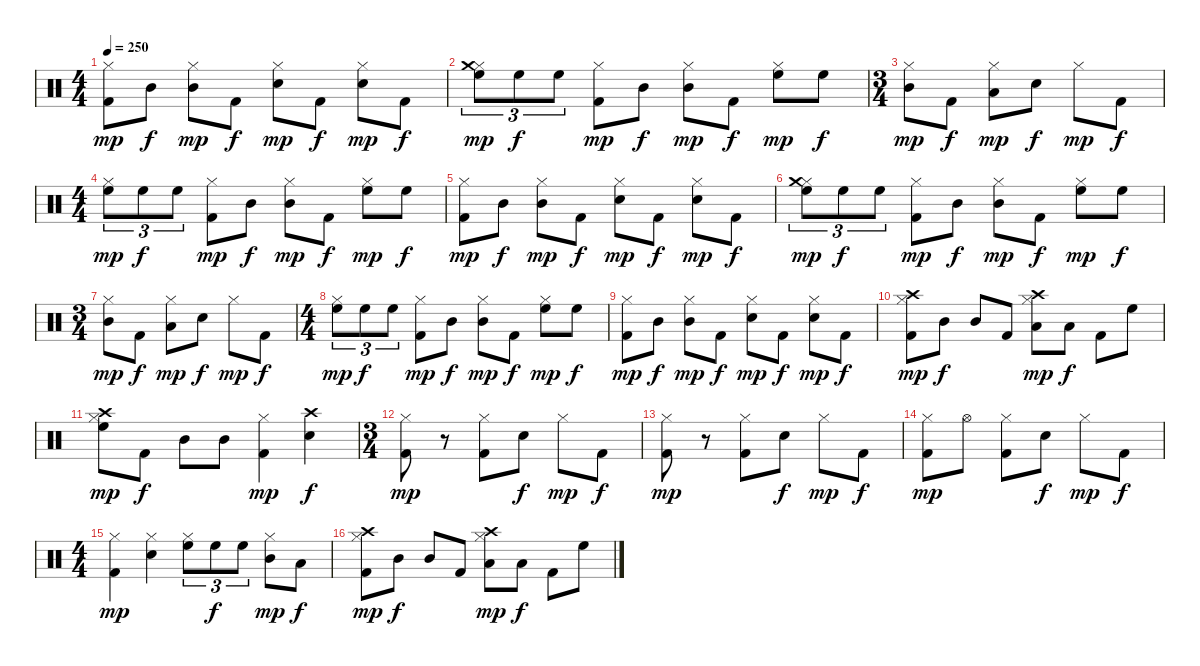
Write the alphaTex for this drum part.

\track "" {instrument percussion}
\staff {score}
\articulation defaults
\ts (4 4)
\tempo 250
\clef neutral
\ks c
("Hi-Hat (closed)" "Kick (hit) 2").8{dy mp balance 8} "Mid Tom (hit)".8{dy f} ("Hi-Hat (closed)" "Mid Tom (hit)").8{dy mp} "Kick (hit) 2".8{dy f} ("Hi-Hat (closed)" "Electric Snare (hit)").8{dy mp} "Kick (hit) 2".8{dy f} ("Hi-Hat (closed)" "Electric Snare (hit)").8{dy mp} "Kick (hit) 2".8{dy f} |
("Hi-Hat (closed)" "High Floor Tom (hit)" "Crash medium (hit)").8{tu (3 2) dy mp balance 14} "High Floor Tom (hit)".8{tu (3 2) dy f} "High Floor Tom (hit)".8{tu (3 2)} ("Hi-Hat (closed)" "Kick (hit) 2").8{dy mp balance 8} "Mid Tom (hit)".8{dy f} ("Hi-Hat (closed)" "Mid Tom (hit)").8{dy mp} "Kick (hit) 2".8{dy f} ("Hi-Hat (closed)" "High Floor Tom (hit)").8{dy mp balance 14} "High Floor Tom (hit)".8{dy f} |
\ts (3 4)
("Hi-Hat (closed)" "Mid Tom (hit)").8{dy mp balance 8} "Kick (hit) 2".8{dy f} ("Hi-Hat (closed)" "Low Tom (hit)").8{dy mp balance 2} "Electric Snare (hit)".8{dy f balance 8} "Hi-Hat (closed)".8{dy mp} "Kick (hit) 2".8{dy f} |
\ts (4 4)
("Hi-Hat (closed)" "High Floor Tom (hit)").8{tu (3 2) dy mp balance 14} "High Floor Tom (hit)".8{tu (3 2) dy f} "High Floor Tom (hit)".8{tu (3 2)} ("Hi-Hat (closed)" "Kick (hit) 2").8{dy mp balance 8} "Mid Tom (hit)".8{dy f} ("Hi-Hat (closed)" "Mid Tom (hit)").8{dy mp} "Kick (hit) 2".8{dy f} ("Hi-Hat (closed)" "High Floor Tom (hit)").8{dy mp balance 14} "High Floor Tom (hit)".8{dy f} |
("Hi-Hat (closed)" "Kick (hit) 2").8{dy mp balance 8} "Mid Tom (hit)".8{dy f} ("Hi-Hat (closed)" "Mid Tom (hit)").8{dy mp} "Kick (hit) 2".8{dy f} ("Hi-Hat (closed)" "Electric Snare (hit)").8{dy mp} "Kick (hit) 2".8{dy f} ("Hi-Hat (closed)" "Electric Snare (hit)").8{dy mp} "Kick (hit) 2".8{dy f} |
("Hi-Hat (closed)" "High Floor Tom (hit)" "Crash medium (hit)").8{tu (3 2) dy mp balance 14} "High Floor Tom (hit)".8{tu (3 2) dy f} "High Floor Tom (hit)".8{tu (3 2)} ("Hi-Hat (closed)" "Kick (hit) 2").8{dy mp balance 8} "Mid Tom (hit)".8{dy f} ("Hi-Hat (closed)" "Mid Tom (hit)").8{dy mp} "Kick (hit) 2".8{dy f} ("Hi-Hat (closed)" "High Floor Tom (hit)").8{dy mp balance 14} "High Floor Tom (hit)".8{dy f} |
\ts (3 4)
("Hi-Hat (closed)" "Mid Tom (hit)").8{dy mp balance 8} "Kick (hit) 2".8{dy f} ("Hi-Hat (closed)" "Low Tom (hit)").8{dy mp balance 2} "Electric Snare (hit)".8{dy f balance 8} "Hi-Hat (closed)".8{dy mp} "Kick (hit) 2".8{dy f} |
\ts (4 4)
("Hi-Hat (closed)" "High Floor Tom (hit)").8{tu (3 2) dy mp balance 14} "High Floor Tom (hit)".8{tu (3 2) dy f} "High Floor Tom (hit)".8{tu (3 2)} ("Hi-Hat (closed)" "Kick (hit) 2").8{dy mp balance 8} "Mid Tom (hit)".8{dy f} ("Hi-Hat (closed)" "Mid Tom (hit)").8{dy mp} "Kick (hit) 2".8{dy f} ("Hi-Hat (closed)" "High Floor Tom (hit)").8{dy mp balance 14} "High Floor Tom (hit)".8{dy f} |
("Hi-Hat (closed)" "Kick (hit) 2").8{dy mp balance 8} "Mid Tom (hit)".8{dy f} ("Hi-Hat (closed)" "Mid Tom (hit)").8{dy mp} "Kick (hit) 2".8{dy f} ("Hi-Hat (closed)" "Electric Snare (hit)").8{dy mp} "Kick (hit) 2".8{dy f} ("Hi-Hat (closed)" "Electric Snare (hit)").8{dy mp} "Kick (hit) 2".8{dy f} |
("Hi-Hat (closed)" "Kick (hit) 2" "Crash high (hit)").8{dy mp} "Mid Tom (hit)".8{dy f} "Mid Tom (hit)".8 "Kick (hit) 2".8 ("Hi-Hat (closed)" "Low Tom (hit)" "Crash high (hit)").8{dy mp balance 2} "Low Tom (hit)".8{dy f} "Kick (hit) 2".8{balance 8} "High Floor Tom (hit)".8{balance 14} |
("Hi-Hat (closed)" "High Floor Tom (hit)" "Crash high (hit)").8{dy mp} "Kick (hit) 2".8{dy f balance 8} "Mid Tom (hit)".8 "Mid Tom (hit)".8 ("Hi-Hat (closed)" "Kick (hit) 2").4{dy mp} ("Electric Snare (hit)" "Crash high (hit)").4{dy f} |
\ts (3 4)
("Hi-Hat (closed)" "Kick (hit) 2").8{dy mp} r.8 ("Hi-Hat (closed)" "Kick (hit) 2").8 "Electric Snare (hit)".8{dy f} "Hi-Hat (closed)".8{dy mp} "Kick (hit) 2".8{dy f} |
("Hi-Hat (closed)" "Kick (hit) 2").8{dy mp} r.8 ("Hi-Hat (closed)" "Kick (hit) 2").8 "Electric Snare (hit)".8{dy f} "Hi-Hat (closed)".8{dy mp} "Kick (hit) 2".8{dy f} |
("Hi-Hat (closed)" "Kick (hit) 2").8{dy mp} "Hi-Hat (open)".8 ("Hi-Hat (closed)" "Kick (hit) 2").8 "Electric Snare (hit)".8{dy f} "Hi-Hat (closed)".8{dy mp} "Kick (hit) 2".8{dy f} |
\ts (4 4)
("Hi-Hat (closed)" "Kick (hit) 2").4{dy mp} ("Hi-Hat (closed)" "Electric Snare (hit)").4 ("Hi-Hat (closed)" "High Floor Tom (hit)").8{tu (3 2) balance 16} "High Floor Tom (hit)".8{tu (3 2) dy f} "High Floor Tom (hit)".8{tu (3 2)} ("Hi-Hat (closed)" "Mid Tom (hit)").8{dy mp balance 8} "Low Tom (hit)".8{dy f balance 0} |
("Hi-Hat (closed)" "Kick (hit) 2" "Crash high (hit)").8{dy mp} "Mid Tom (hit)".8{dy f} "Mid Tom (hit)".8 "Kick (hit) 2".8 ("Hi-Hat (closed)" "Low Tom (hit)" "Crash high (hit)").8{dy mp balance 2} "Low Tom (hit)".8{dy f} "Kick (hit) 2".8{balance 8} "High Floor Tom (hit)".8{balance 14}
